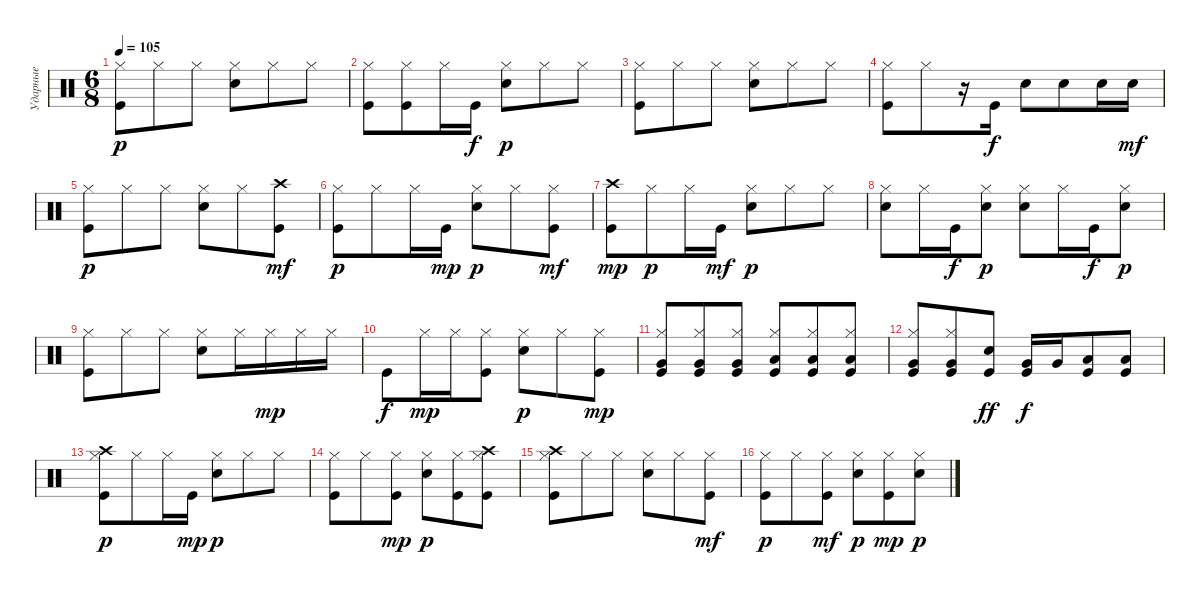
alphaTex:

\track ("Ударные" "Ударные") {instrument percussion}
\staff {score}
\articulation defaults
\ts (6 8)
\tempo 105
\clef neutral
\ks c
("Kick (hit)" "Hi-Hat (closed)").8{dy p} "Hi-Hat (closed)".8 "Hi-Hat (closed)".8 ("Electric Snare (hit)" "Hi-Hat (closed)").8 "Hi-Hat (closed)".8 "Hi-Hat (closed)".8 |
("Hi-Hat (closed)" "Kick (hit)").8 ("Hi-Hat (closed)" "Kick (hit)").8 "Hi-Hat (closed)".16 "Kick (hit)".16{dy f} ("Hi-Hat (closed)" "Electric Snare (hit)").8{dy p} "Hi-Hat (closed)".8 "Hi-Hat (closed)".8 |
("Hi-Hat (closed)" "Kick (hit)").8 "Hi-Hat (closed)".8 "Hi-Hat (closed)".8 ("Hi-Hat (closed)" "Electric Snare (hit)").8 "Hi-Hat (closed)".8 "Hi-Hat (closed)".8 |
("Hi-Hat (closed)" "Kick (hit)").8 "Hi-Hat (closed)".8 r.16 "Kick (hit)".16{dy f} "Electric Snare (hit)".8 "Electric Snare (hit)".8 "Electric Snare (hit)".16 "Electric Snare (hit)".16{dy mf} |
("Hi-Hat (closed)" "Kick (hit)").8{dy p} "Hi-Hat (closed)".8 "Hi-Hat (closed)".8 ("Hi-Hat (closed)" "Electric Snare (hit)").8 "Hi-Hat (closed)".8 ("Crash high (hit)" "Kick (hit)").8{dy mf} |
("Hi-Hat (closed)" "Kick (hit)").8{dy p} "Hi-Hat (closed)".8 "Hi-Hat (closed)".16 "Kick (hit)".16{dy mp} ("Hi-Hat (closed)" "Electric Snare (hit)").8{dy p} "Hi-Hat (closed)".8 ("Hi-Hat (closed)" "Kick (hit)").8{dy mf} |
("Crash high (hit)" "Kick (hit)").8{dy mp} "Hi-Hat (closed)".8{dy p} "Hi-Hat (closed)".16 "Kick (hit)".16{dy mf} ("Hi-Hat (closed)" "Electric Snare (hit)").8{dy p} "Hi-Hat (closed)".8 "Hi-Hat (closed)".8 |
("Hi-Hat (closed)" "Electric Snare (hit)").8 "Hi-Hat (closed)".16 "Kick (hit)".16{dy f} ("Hi-Hat (closed)" "Electric Snare (hit)").8{dy p} ("Hi-Hat (closed)" "Electric Snare (hit)").8 "Hi-Hat (closed)".16 "Kick (hit)".16{dy f} ("Hi-Hat (closed)" "Electric Snare (hit)").8{dy p} |
("Hi-Hat (closed)" "Kick (hit)").8 "Hi-Hat (closed)".8 "Hi-Hat (closed)".8 ("Hi-Hat (closed)" "Electric Snare (hit)").8 "Hi-Hat (closed)".16 "Hi-Hat (closed)".16{dy mp} "Hi-Hat (closed)".16 "Hi-Hat (closed)".16 |
"Kick (hit)".8{dy f} "Hi-Hat (closed)".16{dy mp} "Hi-Hat (closed)".16 ("Kick (hit)" "Hi-Hat (closed)").8 ("Hi-Hat (closed)" "Electric Snare (hit)").8{dy p} "Hi-Hat (closed)".8 ("Hi-Hat (closed)" "Kick (hit)").8{dy mp} |
("Hi-Hat (closed)" "Kick (hit)" "Very Low Tom (hit)").8 ("Hi-Hat (closed)" "Kick (hit)" "Very Low Tom (hit)").8 ("Hi-Hat (closed)" "Kick (hit)" "Very Low Tom (hit)").8 ("Hi-Hat (closed)" "Kick (hit)" "Low Floor Tom (hit)").8 ("Hi-Hat (closed)" "Kick (hit)" "Low Floor Tom (hit)").8 ("Hi-Hat (closed)" "Kick (hit)" "Low Floor Tom (hit)").8 |
("Hi-Hat (closed)" "Very Low Tom (hit)" "Kick (hit)").8 ("Hi-Hat (closed)" "Very Low Tom (hit)" "Kick (hit)").8 ("Electric Snare (hit)" "Kick (hit)").8{dy ff} ("Kick (hit)" "Very Low Tom (hit)").16{dy f} "Very Low Tom (hit)".16 ("Kick (hit)" "Low Floor Tom (hit)").8 ("Kick (hit)" "Low Floor Tom (hit)").8 |
("Crash high (hit)" "Hi-Hat (closed)" "Kick (hit)").8{dy p} "Hi-Hat (closed)".8 "Hi-Hat (closed)".16 "Kick (hit)".16{dy mp} ("Hi-Hat (closed)" "Electric Snare (hit)").8{dy p} "Hi-Hat (closed)".8 "Hi-Hat (closed)".8 |
("Hi-Hat (closed)" "Kick (hit)").8 "Hi-Hat (closed)".8 ("Hi-Hat (closed)" "Kick (hit)").8{dy mp} ("Hi-Hat (closed)" "Electric Snare (hit)").8{dy p} ("Hi-Hat (closed)" "Kick (hit)").8 ("Crash high (hit)" "Hi-Hat (closed)" "Kick (hit)").8 |
("Crash high (hit)" "Hi-Hat (closed)" "Kick (hit)").8 "Hi-Hat (closed)".8 "Hi-Hat (closed)".8 ("Hi-Hat (closed)" "Electric Snare (hit)").8 "Hi-Hat (closed)".8 ("Hi-Hat (closed)" "Kick (hit)").8{dy mf} |
("Hi-Hat (closed)" "Kick (hit)").8{dy p} "Hi-Hat (closed)".8 ("Hi-Hat (closed)" "Kick (hit)").8{dy mf} ("Hi-Hat (closed)" "Electric Snare (hit)").8{dy p} ("Hi-Hat (closed)" "Kick (hit)").8{dy mp} ("Hi-Hat (closed)" "Electric Snare (hit)").8{dy p}
